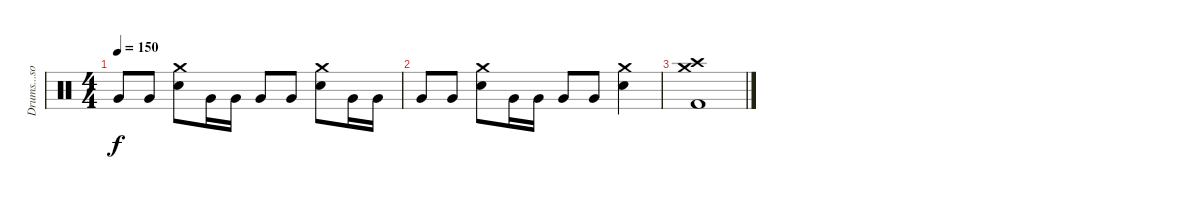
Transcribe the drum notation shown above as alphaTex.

\track ("Drums...song tabbed by ae" "Drums...so") {instrument percussion}
\staff {score}
\articulation defaults
\ts (4 4)
\tempo 150
\clef neutral
\ks c "Very Low Tom (hit)".8{dy f} "Very Low Tom (hit)".8
("Crash medium (hit)" "Electric Snare (hit)").8 "Very Low Tom (hit)".16 "Very Low Tom (hit)".16 "Very Low Tom (hit)".8 "Very Low Tom (hit)".8 ("Crash medium (hit)" "Electric Snare (hit)").8 "Very Low Tom (hit)".16 "Very Low Tom (hit)".16 |
"Very Low Tom (hit)".8 "Very Low Tom (hit)".8 ("Crash medium (hit)" "Electric Snare (hit)").8 "Very Low Tom (hit)".16 "Very Low Tom (hit)".16 "Very Low Tom (hit)".8 "Very Low Tom (hit)".8 ("Crash medium (hit)" "Electric Snare (hit)").4 |
("Crash medium (hit)" "Crash high (hit)" "Kick (hit) 2").1
